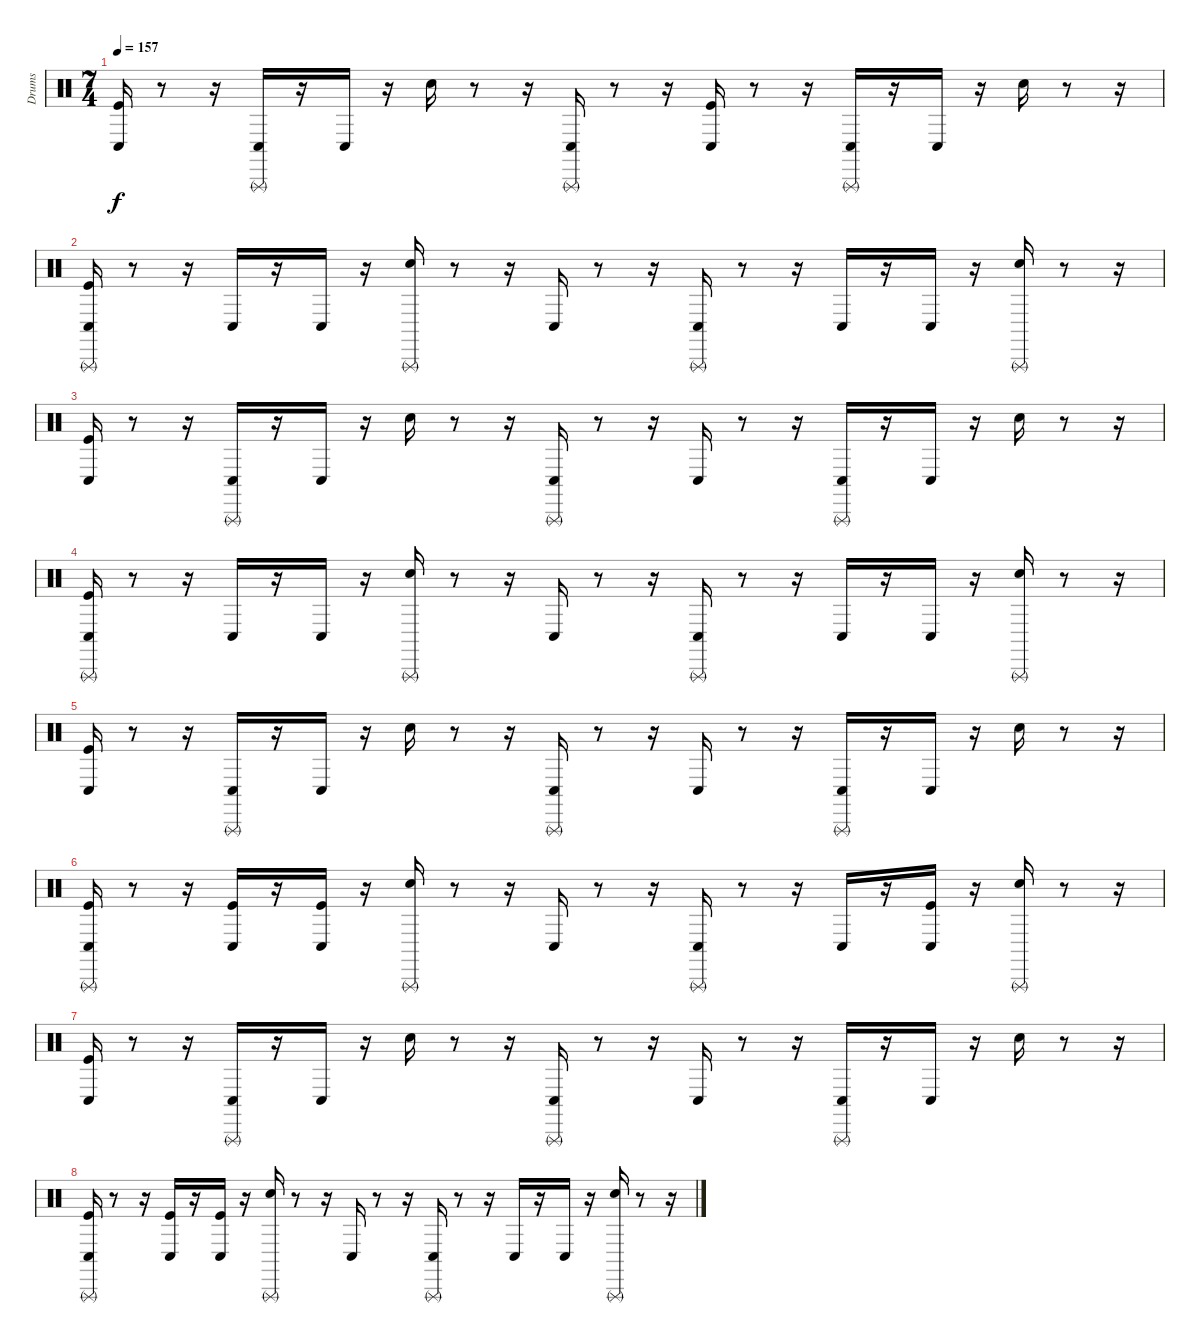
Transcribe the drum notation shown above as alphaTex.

\track ("Drums" "Drums") {instrument percussion}
\staff {score}
\articulation defaults
\ts (7 4)
\tempo 157
\clef neutral
\ks c
("Kick (hit)" "Conga low (hit)").16{dy f} r.8 r.16 ("Conga low (hit)" "Triangle (rnute)").16 r.16 "Conga low (hit)".16 r.16 "Snare (hit) 2".16 r.8 r.16 ("Triangle (rnute)" "Conga low (hit)").16 r.8 r.16 ("Kick (hit)" "Conga low (hit)").16 r.8 r.16 ("Conga low (hit)" "Triangle (rnute)").16 r.16 "Conga low (hit)".16 r.16 "Snare (hit) 2".16 r.8 r.16 |
("Kick (hit)" "Conga low (hit)" "Triangle (rnute)").16 r.8 r.16 "Conga low (hit)".16 r.16 "Conga low (hit)".16 r.16 ("Snare (hit) 2" "Triangle (rnute)").16 r.8 r.16 "Conga low (hit)".16 r.8 r.16 ("Conga low (hit)" "Triangle (rnute)").16 r.8 r.16 "Conga low (hit)".16 r.16 "Conga low (hit)".16 r.16 ("Snare (hit) 2" "Triangle (rnute)").16 r.8 r.16 |
("Kick (hit)" "Conga low (hit)").16 r.8 r.16 ("Triangle (rnute)" "Conga low (hit)").16 r.16 "Conga low (hit)".16 r.16 "Snare (hit) 2".16 r.8 r.16 ("Triangle (rnute)" "Conga low (hit)").16 r.8 r.16 "Conga low (hit)".16 r.8 r.16 ("Conga low (hit)" "Triangle (rnute)").16 r.16 "Conga low (hit)".16 r.16 "Snare (hit) 2".16 r.8 r.16 |
("Conga low (hit)" "Triangle (rnute)" "Kick (hit)").16 r.8 r.16 "Conga low (hit)".16 r.16 "Conga low (hit)".16 r.16 ("Triangle (rnute)" "Snare (hit) 2").16 r.8 r.16 "Conga low (hit)".16 r.8 r.16 ("Triangle (rnute)" "Conga low (hit)").16 r.8 r.16 "Conga low (hit)".16 r.16 "Conga low (hit)".16 r.16 ("Snare (hit) 2" "Triangle (rnute)").16 r.8 r.16 |
("Kick (hit)" "Conga low (hit)").16 r.8 r.16 ("Triangle (rnute)" "Conga low (hit)").16 r.16 "Conga low (hit)".16 r.16 "Snare (hit) 2".16 r.8 r.16 ("Triangle (rnute)" "Conga low (hit)").16 r.8 r.16 "Conga low (hit)".16 r.8 r.16 ("Conga low (hit)" "Triangle (rnute)").16 r.16 "Conga low (hit)".16 r.16 "Snare (hit) 2".16 r.8 r.16 |
("Triangle (rnute)" "Kick (hit)" "Conga low (hit)").16 r.8 r.16 ("Conga low (hit)" "Kick (hit)").16 r.16 ("Conga low (hit)" "Kick (hit)").16 r.16 ("Snare (hit) 2" "Triangle (rnute)").16 r.8 r.16 "Conga low (hit)".16 r.8 r.16 ("Conga low (hit)" "Triangle (rnute)").16 r.8 r.16 "Conga low (hit)".16 r.16 ("Kick (hit)" "Conga low (hit)").16 r.16 ("Triangle (rnute)" "Snare (hit) 2").16 r.8 r.16 |
("Kick (hit)" "Conga low (hit)").16 r.8 r.16 ("Triangle (rnute)" "Conga low (hit)").16 r.16 "Conga low (hit)".16 r.16 "Snare (hit) 2".16 r.8 r.16 ("Triangle (rnute)" "Conga low (hit)").16 r.8 r.16 "Conga low (hit)".16 r.8 r.16 ("Conga low (hit)" "Triangle (rnute)").16 r.16 "Conga low (hit)".16 r.16 "Snare (hit) 2".16 r.8 r.16 |
("Conga low (hit)" "Triangle (rnute)" "Kick (hit)").16 r.8 r.16 ("Conga low (hit)" "Kick (hit)").16 r.16 ("Kick (hit)" "Conga low (hit)").16 r.16 ("Snare (hit) 2" "Triangle (rnute)").16 r.8 r.16 "Conga low (hit)".16 r.8 r.16 ("Conga low (hit)" "Triangle (rnute)").16 r.8 r.16 "Conga low (hit)".16 r.16 "Conga low (hit)".16 r.16 ("Triangle (rnute)" "Snare (hit) 2").16 r.8 r.16
